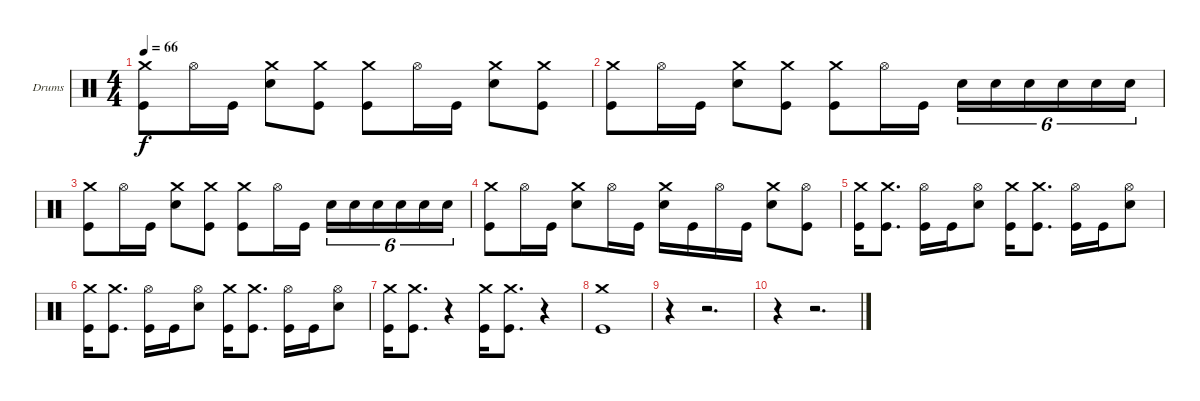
\bracketExtendMode groupsimilarinstruments
\firstSystemTrackNameOrientation horizontal
\otherSystemsTrackNameOrientation horizontal
\track ("Drumkit" "Drums") {instrument percussion}
\staff {score}
\articulation defaults
\ts (4 4)
\tempo 66
\clef neutral
\ks c
("Crash medium (hit)" "Kick (hit)").8{dy f} "Hi-Hat (open)".16 "Kick (hit)".16 ("Crash medium (hit)" "Snare (hit) 2").8 ("Crash medium (hit)" "Kick (hit)").8 ("Crash medium (hit)" "Kick (hit)").8 "Hi-Hat (open)".16 "Kick (hit)".16 ("Crash medium (hit)" "Snare (hit) 2").8 ("Crash medium (hit)" "Kick (hit)").8 |
("Crash medium (hit)" "Kick (hit)").8 "Hi-Hat (open)".16 "Kick (hit)".16 ("Crash medium (hit)" "Snare (hit) 2").8 ("Crash medium (hit)" "Kick (hit)").8 ("Crash medium (hit)" "Kick (hit)").8 "Hi-Hat (open)".16 "Kick (hit)".16 "Snare (hit) 2".16{tu (6 4)} "Snare (hit) 2".16{tu (6 4)} "Snare (hit) 2".16{tu (6 4)} "Snare (hit) 2".16{tu (6 4)} "Snare (hit) 2".16{tu (6 4)} "Snare (hit) 2".16{tu (6 4)} |
("Crash medium (hit)" "Kick (hit)").8 "Hi-Hat (open)".16 "Kick (hit)".16 ("Crash medium (hit)" "Snare (hit) 2").8 ("Crash medium (hit)" "Kick (hit)").8 ("Crash medium (hit)" "Kick (hit)").8 "Hi-Hat (open)".16 "Kick (hit)".16 "Snare (hit) 2".16{tu (6 4)} "Snare (hit) 2".16{tu (6 4)} "Snare (hit) 2".16{tu (6 4)} "Snare (hit) 2".16{tu (6 4)} "Snare (hit) 2".16{tu (6 4)} "Snare (hit) 2".16{tu (6 4)} |
("Crash medium (hit)" "Kick (hit)").8 "Hi-Hat (open)".16 "Kick (hit)".16 ("Crash medium (hit)" "Snare (hit) 2").8 "Hi-Hat (open)".16 "Kick (hit)".16 ("Crash medium (hit)" "Snare (hit) 2").16 "Kick (hit)".16 "Hi-Hat (open)".16 "Kick (hit)".16 ("Crash medium (hit)" "Snare (hit) 2").8 ("Hi-Hat (open)" "Kick (hit)").8 |
("Crash medium (hit)" "Kick (hit)").16 ("Crash medium (hit)" "Kick (hit)").8{d} ("Hi-Hat (open)" "Kick (hit)").16 "Kick (hit)".16 ("Hi-Hat (open)" "Snare (hit) 2").8 ("Crash medium (hit)" "Kick (hit)").16 ("Crash medium (hit)" "Kick (hit)").8{d} ("Hi-Hat (open)" "Kick (hit)").16 "Kick (hit)".16 ("Hi-Hat (open)" "Snare (hit) 2").8 |
("Crash medium (hit)" "Kick (hit)").16 ("Crash medium (hit)" "Kick (hit)").8{d} ("Hi-Hat (open)" "Kick (hit)").16 "Kick (hit)".16 ("Hi-Hat (open)" "Snare (hit) 2").8 ("Crash medium (hit)" "Kick (hit)").16 ("Crash medium (hit)" "Kick (hit)").8{d} ("Hi-Hat (open)" "Kick (hit)").16 "Kick (hit)".16 ("Hi-Hat (open)" "Snare (hit) 2").8 |
("Crash medium (hit)" "Kick (hit)").16 ("Crash medium (hit)" "Kick (hit)").8{d} r.4 ("Crash medium (hit)" "Kick (hit)").16 ("Crash medium (hit)" "Kick (hit)").8{d} r.4 |
("Crash medium (hit)" "Kick (hit)").1 |
r.4 r.2{d} |
r.4 r.2{d}
